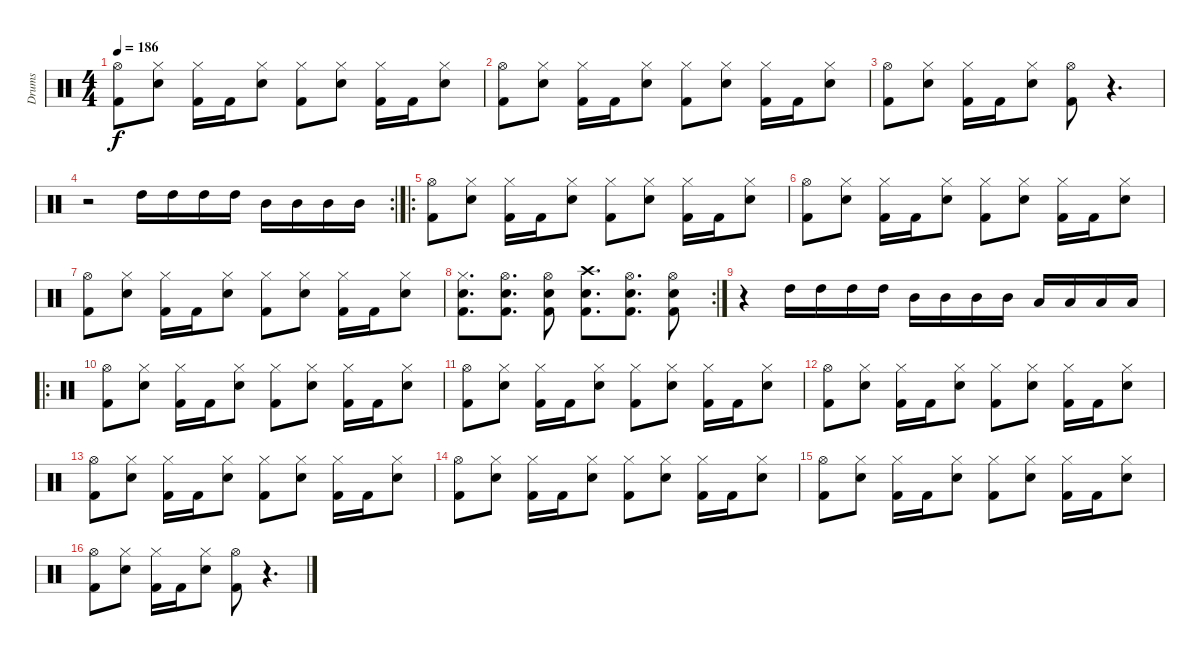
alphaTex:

\track ("Drums" "Drums") {instrument percussion}
\staff {score}
\articulation defaults
\ts (4 4)
\tempo 186
\clef neutral
\ks c
("Hi-Hat (open)" "Kick (hit) 2").8{dy f} ("Hi-Hat (closed)" "Electric Snare (hit)").8 ("Hi-Hat (closed)" "Kick (hit) 2").16 "Kick (hit) 2".16 ("Hi-Hat (closed)" "Electric Snare (hit)").8 ("Hi-Hat (closed)" "Kick (hit) 2").8 ("Hi-Hat (closed)" "Electric Snare (hit)").8 ("Hi-Hat (closed)" "Kick (hit) 2").16 "Kick (hit) 2".16 ("Hi-Hat (closed)" "Electric Snare (hit)").8 |
("Hi-Hat (open)" "Kick (hit) 2").8 ("Hi-Hat (closed)" "Electric Snare (hit)").8 ("Hi-Hat (closed)" "Kick (hit) 2").16 "Kick (hit) 2".16 ("Hi-Hat (closed)" "Electric Snare (hit)").8 ("Hi-Hat (closed)" "Kick (hit) 2").8 ("Hi-Hat (closed)" "Electric Snare (hit)").8 ("Hi-Hat (closed)" "Kick (hit) 2").16 "Kick (hit) 2".16 ("Hi-Hat (closed)" "Electric Snare (hit)").8 |
("Hi-Hat (open)" "Kick (hit) 2").8 ("Hi-Hat (closed)" "Electric Snare (hit)").8 ("Hi-Hat (closed)" "Kick (hit) 2").16 "Kick (hit) 2".16 ("Hi-Hat (closed)" "Electric Snare (hit)").8 ("Hi-Hat (open)" "Kick (hit) 2").8 r.4{d} |
\rc 2
r.2 "High Tom (hit)".16 "High Tom (hit)".16 "High Tom (hit)".16 "High Tom (hit)".16 "Mid Tom (hit)".16 "Mid Tom (hit)".16 "Mid Tom (hit)".16 "Mid Tom (hit)".16 |
\ro
("Hi-Hat (open)" "Kick (hit) 2").8 ("Hi-Hat (closed)" "Electric Snare (hit)").8 ("Hi-Hat (closed)" "Kick (hit) 2").16 "Kick (hit) 2".16 ("Hi-Hat (closed)" "Electric Snare (hit)").8 ("Hi-Hat (closed)" "Kick (hit) 2").8 ("Hi-Hat (closed)" "Electric Snare (hit)").8 ("Hi-Hat (closed)" "Kick (hit) 2").16 "Kick (hit) 2".16 ("Hi-Hat (closed)" "Electric Snare (hit)").8 |
("Hi-Hat (open)" "Kick (hit) 2").8 ("Hi-Hat (closed)" "Electric Snare (hit)").8 ("Hi-Hat (closed)" "Kick (hit) 2").16 "Kick (hit) 2".16 ("Hi-Hat (closed)" "Electric Snare (hit)").8 ("Hi-Hat (closed)" "Kick (hit) 2").8 ("Hi-Hat (closed)" "Electric Snare (hit)").8 ("Hi-Hat (closed)" "Kick (hit) 2").16 "Kick (hit) 2".16 ("Hi-Hat (closed)" "Electric Snare (hit)").8 |
("Hi-Hat (open)" "Kick (hit) 2").8 ("Hi-Hat (closed)" "Electric Snare (hit)").8 ("Hi-Hat (closed)" "Kick (hit) 2").16 "Kick (hit) 2".16 ("Hi-Hat (closed)" "Electric Snare (hit)").8 ("Hi-Hat (closed)" "Kick (hit) 2").8 ("Hi-Hat (closed)" "Electric Snare (hit)").8 ("Hi-Hat (closed)" "Kick (hit) 2").16 "Kick (hit) 2".16 ("Hi-Hat (closed)" "Electric Snare (hit)").8 |
\rc 2
("Hi-Hat (closed)" "Electric Snare (hit)" "Kick (hit) 2").8{d} ("Hi-Hat (open)" "Electric Snare (hit)" "Kick (hit) 2").8{d} ("Hi-Hat (open)" "Electric Snare (hit)" "Kick (hit) 2").8 ("Crash high (hit)" "Electric Snare (hit)" "Kick (hit) 2").8{d} ("Hi-Hat (open)" "Electric Snare (hit)" "Kick (hit) 2").8{d} ("Hi-Hat (open)" "Electric Snare (hit)" "Kick (hit) 2").8 |
r.4 "High Tom (hit)".16 "High Tom (hit)".16 "High Tom (hit)".16 "High Tom (hit)".16 "Mid Tom (hit)".16 "Mid Tom (hit)".16 "Mid Tom (hit)".16 "Mid Tom (hit)".16 "Low Tom (hit)".16 "Low Tom (hit)".16 "Low Tom (hit)".16 "Low Tom (hit)".16 |
\ro
("Hi-Hat (open)" "Kick (hit) 2").8 ("Hi-Hat (closed)" "Electric Snare (hit)").8 ("Hi-Hat (closed)" "Kick (hit) 2").16 "Kick (hit) 2".16 ("Hi-Hat (closed)" "Electric Snare (hit)").8 ("Hi-Hat (closed)" "Kick (hit) 2").8 ("Hi-Hat (closed)" "Electric Snare (hit)").8 ("Hi-Hat (closed)" "Kick (hit) 2").16 "Kick (hit) 2".16 ("Hi-Hat (closed)" "Electric Snare (hit)").8 |
("Hi-Hat (open)" "Kick (hit) 2").8 ("Hi-Hat (closed)" "Electric Snare (hit)").8 ("Hi-Hat (closed)" "Kick (hit) 2").16 "Kick (hit) 2".16 ("Hi-Hat (closed)" "Electric Snare (hit)").8 ("Hi-Hat (closed)" "Kick (hit) 2").8 ("Hi-Hat (closed)" "Electric Snare (hit)").8 ("Hi-Hat (closed)" "Kick (hit) 2").16 "Kick (hit) 2".16 ("Hi-Hat (closed)" "Electric Snare (hit)").8 |
("Hi-Hat (open)" "Kick (hit) 2").8 ("Hi-Hat (closed)" "Electric Snare (hit)").8 ("Hi-Hat (closed)" "Kick (hit) 2").16 "Kick (hit) 2".16 ("Hi-Hat (closed)" "Electric Snare (hit)").8 ("Hi-Hat (closed)" "Kick (hit) 2").8 ("Hi-Hat (closed)" "Electric Snare (hit)").8 ("Hi-Hat (closed)" "Kick (hit) 2").16 "Kick (hit) 2".16 ("Hi-Hat (closed)" "Electric Snare (hit)").8 |
("Hi-Hat (open)" "Kick (hit) 2").8 ("Hi-Hat (closed)" "Electric Snare (hit)").8 ("Hi-Hat (closed)" "Kick (hit) 2").16 "Kick (hit) 2".16 ("Hi-Hat (closed)" "Electric Snare (hit)").8 ("Hi-Hat (closed)" "Kick (hit) 2").8 ("Hi-Hat (closed)" "Electric Snare (hit)").8 ("Hi-Hat (closed)" "Kick (hit) 2").16 "Kick (hit) 2".16 ("Hi-Hat (closed)" "Electric Snare (hit)").8 |
("Hi-Hat (open)" "Kick (hit) 2").8 ("Hi-Hat (closed)" "Electric Snare (hit)").8 ("Hi-Hat (closed)" "Kick (hit) 2").16 "Kick (hit) 2".16 ("Hi-Hat (closed)" "Electric Snare (hit)").8 ("Hi-Hat (closed)" "Kick (hit) 2").8 ("Hi-Hat (closed)" "Electric Snare (hit)").8 ("Hi-Hat (closed)" "Kick (hit) 2").16 "Kick (hit) 2".16 ("Hi-Hat (closed)" "Electric Snare (hit)").8 |
("Hi-Hat (open)" "Kick (hit) 2").8 ("Hi-Hat (closed)" "Electric Snare (hit)").8 ("Hi-Hat (closed)" "Kick (hit) 2").16 "Kick (hit) 2".16 ("Hi-Hat (closed)" "Electric Snare (hit)").8 ("Hi-Hat (closed)" "Kick (hit) 2").8 ("Hi-Hat (closed)" "Electric Snare (hit)").8 ("Hi-Hat (closed)" "Kick (hit) 2").16 "Kick (hit) 2".16 ("Hi-Hat (closed)" "Electric Snare (hit)").8 |
("Hi-Hat (open)" "Kick (hit) 2").8 ("Hi-Hat (closed)" "Electric Snare (hit)").8 ("Hi-Hat (closed)" "Kick (hit) 2").16 "Kick (hit) 2".16 ("Hi-Hat (closed)" "Electric Snare (hit)").8 ("Hi-Hat (open)" "Kick (hit) 2").8 r.4{d}
